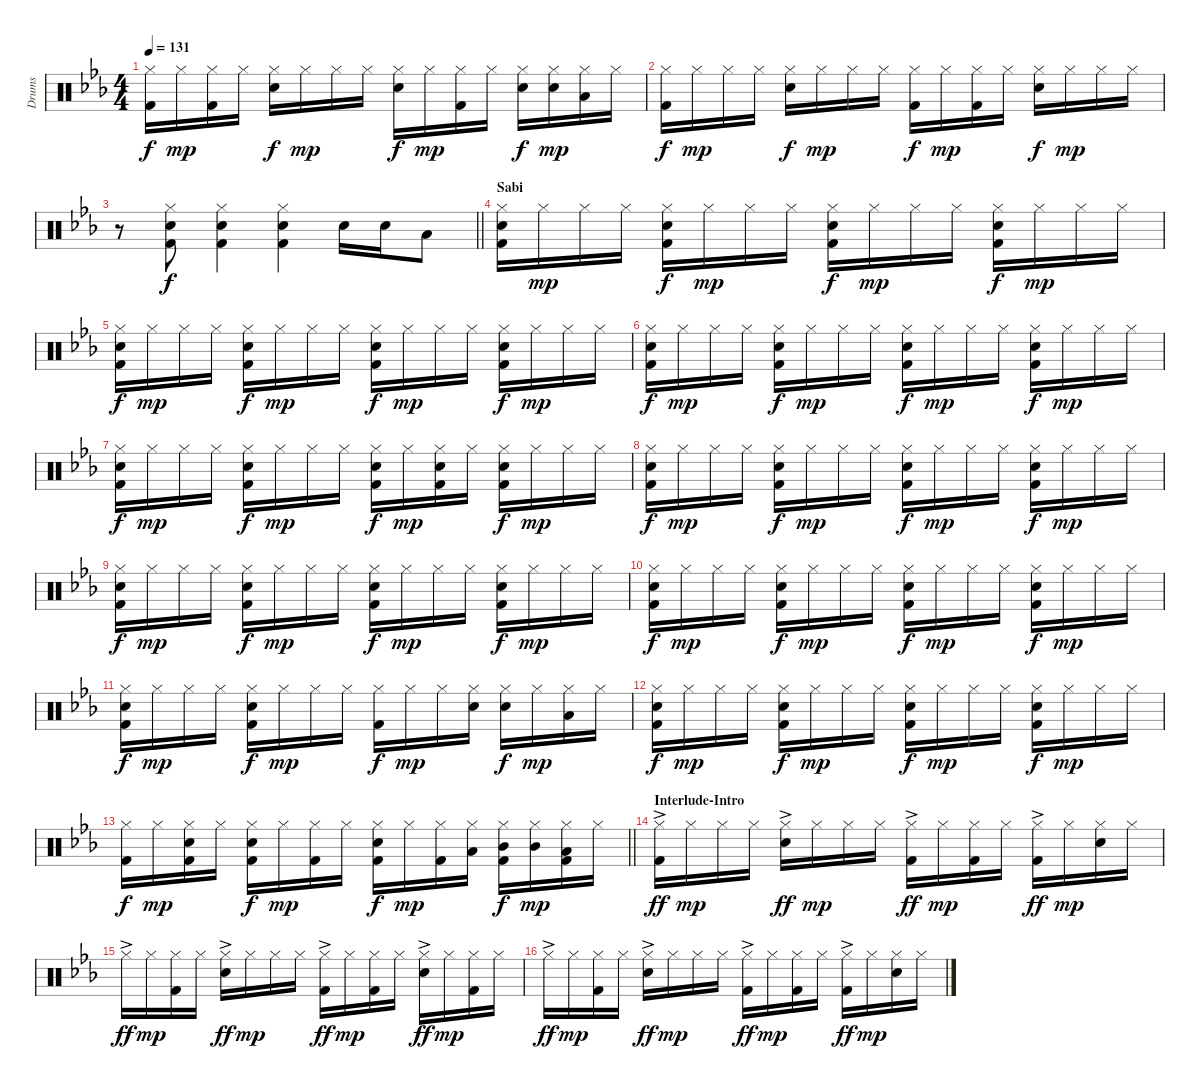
\track ("Drums" "Drums") {instrument percussion}
\staff {score}
\articulation defaults
\ts (4 4)
\tempo 131
\clef neutral
\ks eb
("Hi-Hat (closed)" "Kick (hit) 2").16{dy f} "Hi-Hat (closed)".16{dy mp} ("Hi-Hat (closed)" "Kick (hit) 2").16 "Hi-Hat (closed)".16 ("Hi-Hat (closed)" "Snare (hit) 2").16{dy f} "Hi-Hat (closed)".16{dy mp} "Hi-Hat (closed)".16 "Hi-Hat (closed)".16 ("Hi-Hat (closed)" "Snare (hit) 2").16{dy f} "Hi-Hat (closed)".16{dy mp} ("Hi-Hat (closed)" "Kick (hit) 2").16 "Hi-Hat (closed)".16 ("Hi-Hat (closed)" "Snare (hit) 2").16{dy f} ("Hi-Hat (closed)" "Snare (hit) 2").16{dy mp} ("Hi-Hat (closed)" "Low Tom (hit)").16 "Hi-Hat (closed)".16 |
("Hi-Hat (closed)" "Kick (hit) 2").16{dy f} "Hi-Hat (closed)".16{dy mp} "Hi-Hat (closed)".16 "Hi-Hat (closed)".16 ("Hi-Hat (closed)" "Snare (hit) 2").16{dy f} "Hi-Hat (closed)".16{dy mp} "Hi-Hat (closed)".16 "Hi-Hat (closed)".16 ("Hi-Hat (closed)" "Kick (hit) 2").16{dy f} "Hi-Hat (closed)".16{dy mp} ("Hi-Hat (closed)" "Kick (hit) 2").16 "Hi-Hat (closed)".16 ("Hi-Hat (closed)" "Snare (hit) 2").16{dy f} "Hi-Hat (closed)".16{dy mp} "Hi-Hat (closed)".16 "Hi-Hat (closed)".16 |
\barLineRight lightlight
r.8 ("Hi-Hat (closed)" "Snare (hit) 2" "Kick (hit) 2").8{dy f} ("Hi-Hat (closed)" "Snare (hit) 2" "Kick (hit) 2").4 ("Hi-Hat (closed)" "Snare (hit) 2" "Kick (hit) 2").4 "Snare (hit) 2".16 "Snare (hit) 2".16 "Low Tom (hit)".8 |
\section ("" "Sabi")
("Hi-Hat (closed)" "Snare (hit) 2" "Kick (hit) 2").16 "Hi-Hat (closed)".16{dy mp} "Hi-Hat (closed)".16 "Hi-Hat (closed)".16 ("Hi-Hat (closed)" "Snare (hit) 2" "Kick (hit) 2").16{dy f} "Hi-Hat (closed)".16{dy mp} "Hi-Hat (closed)".16 "Hi-Hat (closed)".16 ("Hi-Hat (closed)" "Snare (hit) 2" "Kick (hit) 2").16{dy f} "Hi-Hat (closed)".16{dy mp} "Hi-Hat (closed)".16 "Hi-Hat (closed)".16 ("Hi-Hat (closed)" "Snare (hit) 2" "Kick (hit) 2").16{dy f} "Hi-Hat (closed)".16{dy mp} "Hi-Hat (closed)".16 "Hi-Hat (closed)".16 |
("Hi-Hat (closed)" "Snare (hit) 2" "Kick (hit) 2").16{dy f} "Hi-Hat (closed)".16{dy mp} "Hi-Hat (closed)".16 "Hi-Hat (closed)".16 ("Hi-Hat (closed)" "Snare (hit) 2" "Kick (hit) 2").16{dy f} "Hi-Hat (closed)".16{dy mp} "Hi-Hat (closed)".16 "Hi-Hat (closed)".16 ("Hi-Hat (closed)" "Snare (hit) 2" "Kick (hit) 2").16{dy f} "Hi-Hat (closed)".16{dy mp} "Hi-Hat (closed)".16 "Hi-Hat (closed)".16 ("Hi-Hat (closed)" "Snare (hit) 2" "Kick (hit) 2").16{dy f} "Hi-Hat (closed)".16{dy mp} "Hi-Hat (closed)".16 "Hi-Hat (closed)".16 |
("Hi-Hat (closed)" "Snare (hit) 2" "Kick (hit) 2").16{dy f} "Hi-Hat (closed)".16{dy mp} "Hi-Hat (closed)".16 "Hi-Hat (closed)".16 ("Hi-Hat (closed)" "Snare (hit) 2" "Kick (hit) 2").16{dy f} "Hi-Hat (closed)".16{dy mp} "Hi-Hat (closed)".16 "Hi-Hat (closed)".16 ("Hi-Hat (closed)" "Snare (hit) 2" "Kick (hit) 2").16{dy f} "Hi-Hat (closed)".16{dy mp} "Hi-Hat (closed)".16 "Hi-Hat (closed)".16 ("Hi-Hat (closed)" "Snare (hit) 2" "Kick (hit) 2").16{dy f} "Hi-Hat (closed)".16{dy mp} "Hi-Hat (closed)".16 "Hi-Hat (closed)".16 |
("Hi-Hat (closed)" "Snare (hit) 2" "Kick (hit) 2").16{dy f} "Hi-Hat (closed)".16{dy mp} "Hi-Hat (closed)".16 "Hi-Hat (closed)".16 ("Hi-Hat (closed)" "Snare (hit) 2" "Kick (hit) 2").16{dy f} "Hi-Hat (closed)".16{dy mp} "Hi-Hat (closed)".16 "Hi-Hat (closed)".16 ("Hi-Hat (closed)" "Snare (hit) 2" "Kick (hit) 2").16{dy f} "Hi-Hat (closed)".16{dy mp} ("Hi-Hat (closed)" "Snare (hit) 2" "Kick (hit) 2").16 "Hi-Hat (closed)".16 ("Hi-Hat (closed)" "Snare (hit) 2" "Kick (hit) 2").16{dy f} "Hi-Hat (closed)".16{dy mp} "Hi-Hat (closed)".16 "Hi-Hat (closed)".16 |
("Hi-Hat (closed)" "Snare (hit) 2" "Kick (hit) 2").16{dy f} "Hi-Hat (closed)".16{dy mp} "Hi-Hat (closed)".16 "Hi-Hat (closed)".16 ("Hi-Hat (closed)" "Snare (hit) 2" "Kick (hit) 2").16{dy f} "Hi-Hat (closed)".16{dy mp} "Hi-Hat (closed)".16 "Hi-Hat (closed)".16 ("Hi-Hat (closed)" "Snare (hit) 2" "Kick (hit) 2").16{dy f} "Hi-Hat (closed)".16{dy mp} "Hi-Hat (closed)".16 "Hi-Hat (closed)".16 ("Hi-Hat (closed)" "Snare (hit) 2" "Kick (hit) 2").16{dy f} "Hi-Hat (closed)".16{dy mp} "Hi-Hat (closed)".16 "Hi-Hat (closed)".16 |
("Hi-Hat (closed)" "Snare (hit) 2" "Kick (hit) 2").16{dy f} "Hi-Hat (closed)".16{dy mp} "Hi-Hat (closed)".16 "Hi-Hat (closed)".16 ("Hi-Hat (closed)" "Snare (hit) 2" "Kick (hit) 2").16{dy f} "Hi-Hat (closed)".16{dy mp} "Hi-Hat (closed)".16 "Hi-Hat (closed)".16 ("Hi-Hat (closed)" "Snare (hit) 2" "Kick (hit) 2").16{dy f} "Hi-Hat (closed)".16{dy mp} "Hi-Hat (closed)".16 "Hi-Hat (closed)".16 ("Hi-Hat (closed)" "Snare (hit) 2" "Kick (hit) 2").16{dy f} "Hi-Hat (closed)".16{dy mp} "Hi-Hat (closed)".16 "Hi-Hat (closed)".16 |
("Hi-Hat (closed)" "Snare (hit) 2" "Kick (hit) 2").16{dy f} "Hi-Hat (closed)".16{dy mp} "Hi-Hat (closed)".16 "Hi-Hat (closed)".16 ("Hi-Hat (closed)" "Snare (hit) 2" "Kick (hit) 2").16{dy f} "Hi-Hat (closed)".16{dy mp} "Hi-Hat (closed)".16 "Hi-Hat (closed)".16 ("Hi-Hat (closed)" "Snare (hit) 2" "Kick (hit) 2").16{dy f} "Hi-Hat (closed)".16{dy mp} "Hi-Hat (closed)".16 "Hi-Hat (closed)".16 ("Hi-Hat (closed)" "Snare (hit) 2" "Kick (hit) 2").16{dy f} "Hi-Hat (closed)".16{dy mp} "Hi-Hat (closed)".16 "Hi-Hat (closed)".16 |
("Hi-Hat (closed)" "Snare (hit) 2" "Kick (hit) 2").16{dy f} "Hi-Hat (closed)".16{dy mp} "Hi-Hat (closed)".16 "Hi-Hat (closed)".16 ("Hi-Hat (closed)" "Snare (hit) 2" "Kick (hit) 2").16{dy f} "Hi-Hat (closed)".16{dy mp} "Hi-Hat (closed)".16 "Hi-Hat (closed)".16 ("Hi-Hat (closed)" "Kick (hit) 2").16{dy f} "Hi-Hat (closed)".16{dy mp} "Hi-Hat (closed)".16 ("Hi-Hat (closed)" "Snare (hit) 2").16 ("Hi-Hat (closed)" "Snare (hit) 2").16{dy f} "Hi-Hat (closed)".16{dy mp} ("Hi-Hat (closed)" "Low Tom (hit)").16 "Hi-Hat (closed)".16 |
("Hi-Hat (closed)" "Snare (hit) 2" "Kick (hit) 2").16{dy f} "Hi-Hat (closed)".16{dy mp} "Hi-Hat (closed)".16 "Hi-Hat (closed)".16 ("Hi-Hat (closed)" "Snare (hit) 2" "Kick (hit) 2").16{dy f} "Hi-Hat (closed)".16{dy mp} "Hi-Hat (closed)".16 "Hi-Hat (closed)".16 ("Hi-Hat (closed)" "Snare (hit) 2" "Kick (hit) 2").16{dy f} "Hi-Hat (closed)".16{dy mp} "Hi-Hat (closed)".16 "Hi-Hat (closed)".16 ("Hi-Hat (closed)" "Snare (hit) 2" "Kick (hit) 2").16{dy f} "Hi-Hat (closed)".16{dy mp} "Hi-Hat (closed)".16 "Hi-Hat (closed)".16 |
\barLineRight lightlight
("Hi-Hat (closed)" "Kick (hit) 2").16{dy f} "Hi-Hat (closed)".16{dy mp} ("Hi-Hat (closed)" "Snare (hit) 2" "Kick (hit) 2").16 "Hi-Hat (closed)".16 ("Hi-Hat (closed)" "Snare (hit) 2" "Kick (hit) 2").16{dy f} "Hi-Hat (closed)".16{dy mp} ("Hi-Hat (closed)" "Kick (hit) 2").16 "Hi-Hat (closed)".16 ("Hi-Hat (closed)" "Snare (hit) 2" "Kick (hit) 2").16{dy f} "Hi-Hat (closed)".16{dy mp} ("Hi-Hat (closed)" "Kick (hit) 2").16 ("Hi-Hat (closed)" "Low Tom (hit)").16 ("Hi-Hat (closed)" "Mid Tom (hit)" "Kick (hit) 2").16{dy f} ("Hi-Hat (closed)" "Mid Tom (hit)").16{dy mp} ("Hi-Hat (closed)" "Low Tom (hit)" "Kick (hit) 2").16 "Hi-Hat (closed)".16 |
\section ("" "Interlude-Intro")
("Hi-Hat (closed)"{ac} "Kick (hit) 2").16{dy ff} "Hi-Hat (closed)".16{dy mp} "Hi-Hat (closed)".16 "Hi-Hat (closed)".16 ("Hi-Hat (closed)"{ac} "Snare (hit) 2").16{dy ff} "Hi-Hat (closed)".16{dy mp} "Hi-Hat (closed)".16 "Hi-Hat (closed)".16 ("Hi-Hat (closed)"{ac} "Kick (hit) 2").16{dy ff} "Hi-Hat (closed)".16{dy mp} ("Hi-Hat (closed)" "Kick (hit) 2").16 "Hi-Hat (closed)".16 ("Hi-Hat (closed)"{ac} "Kick (hit) 2").16{dy ff} "Hi-Hat (closed)".16{dy mp} ("Hi-Hat (closed)" "Snare (hit) 2").16 "Hi-Hat (closed)".16 |
"Hi-Hat (closed)"{ac}.16{dy ff} "Hi-Hat (closed)".16{dy mp} ("Hi-Hat (closed)" "Kick (hit) 2").16 "Hi-Hat (closed)".16 ("Hi-Hat (closed)"{ac} "Snare (hit) 2").16{dy ff} "Hi-Hat (closed)".16{dy mp} "Hi-Hat (closed)".16 "Hi-Hat (closed)".16 ("Hi-Hat (closed)"{ac} "Kick (hit) 2").16{dy ff} "Hi-Hat (closed)".16{dy mp} ("Hi-Hat (closed)" "Kick (hit) 2").16 "Hi-Hat (closed)".16 ("Hi-Hat (closed)"{ac} "Snare (hit) 2").16{dy ff} "Hi-Hat (closed)".16{dy mp} ("Hi-Hat (closed)" "Kick (hit) 2").16 "Hi-Hat (closed)".16 |
"Hi-Hat (closed)"{ac}.16{dy ff} "Hi-Hat (closed)".16{dy mp} ("Hi-Hat (closed)" "Kick (hit) 2").16 "Hi-Hat (closed)".16 ("Hi-Hat (closed)"{ac} "Snare (hit) 2").16{dy ff} "Hi-Hat (closed)".16{dy mp} "Hi-Hat (closed)".16 "Hi-Hat (closed)".16 ("Hi-Hat (closed)"{ac} "Kick (hit) 2").16{dy ff} "Hi-Hat (closed)".16{dy mp} ("Hi-Hat (closed)" "Kick (hit) 2").16 "Hi-Hat (closed)".16 ("Hi-Hat (closed)"{ac} "Kick (hit) 2").16{dy ff} "Hi-Hat (closed)".16{dy mp} ("Hi-Hat (closed)" "Snare (hit) 2").16 "Hi-Hat (closed)".16
